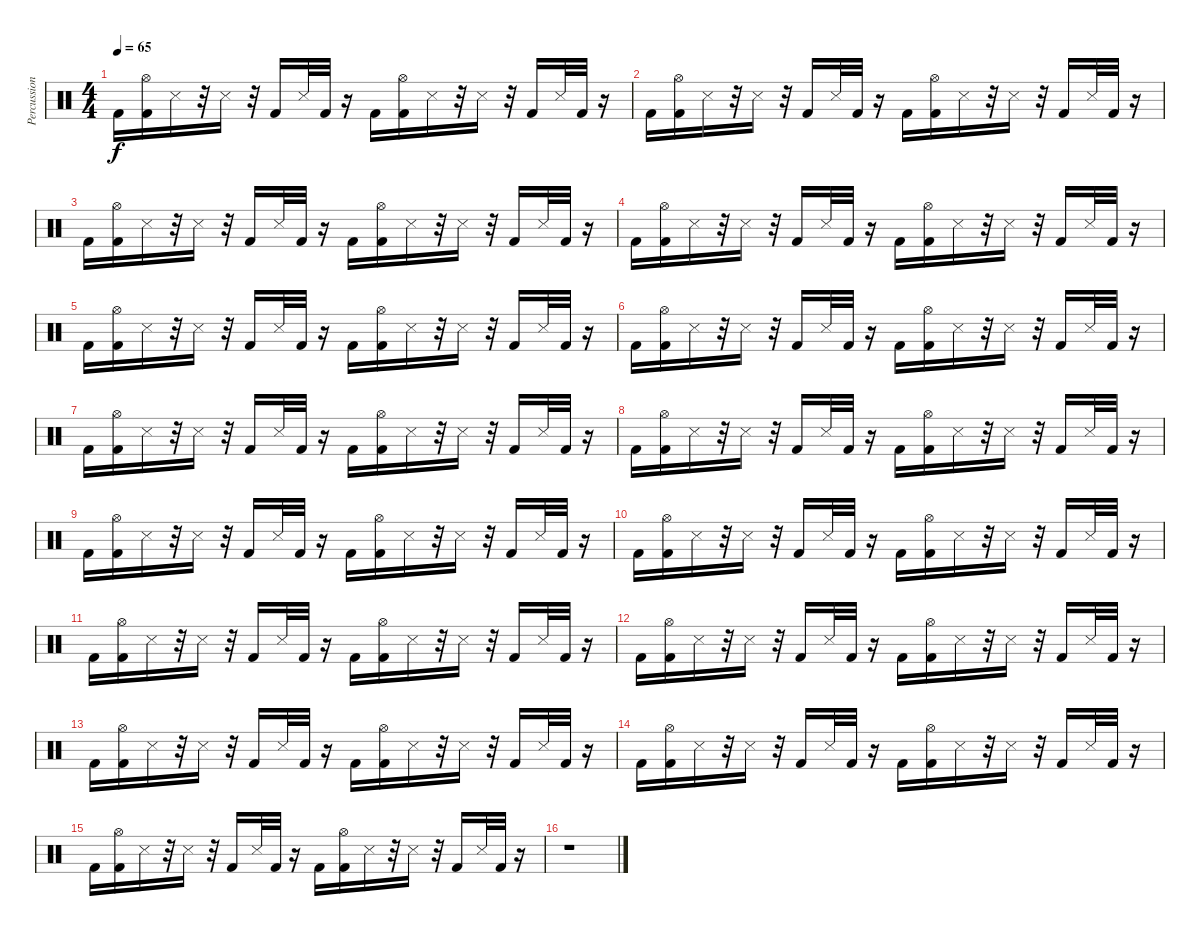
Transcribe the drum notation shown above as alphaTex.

\track ("Percussion 1" "Percussion") {instrument percussion}
\staff {score}
\articulation defaults
\ts (4 4)
\tempo 65
\clef neutral
\ks c "Kick (hit) 2".16{dy f}
("Hi-Hat (open)" "Kick (hit) 2").16 "Snare (side stick) 3".16 r.32 "Snare (side stick) 3".16 r.32 "Kick (hit) 2".16 "Snare (side stick) 3".32 "Kick (hit) 2".32 r.16 "Kick (hit) 2".16 ("Hi-Hat (open)" "Kick (hit) 2").16 "Snare (side stick) 3".16 r.32 "Snare (side stick) 3".16 r.32 "Kick (hit) 2".16 "Snare (side stick) 3".32 "Kick (hit) 2".32 r.16 |
"Kick (hit) 2".16 ("Hi-Hat (open)" "Kick (hit) 2").16 "Snare (side stick) 3".16 r.32 "Snare (side stick) 3".16 r.32 "Kick (hit) 2".16 "Snare (side stick) 3".32 "Kick (hit) 2".32 r.16 "Kick (hit) 2".16 ("Hi-Hat (open)" "Kick (hit) 2").16 "Snare (side stick) 3".16 r.32 "Snare (side stick) 3".16 r.32 "Kick (hit) 2".16 "Snare (side stick) 3".32 "Kick (hit) 2".32 r.16 |
"Kick (hit) 2".16 ("Hi-Hat (open)" "Kick (hit) 2").16 "Snare (side stick) 3".16 r.32 "Snare (side stick) 3".16 r.32 "Kick (hit) 2".16 "Snare (side stick) 3".32 "Kick (hit) 2".32 r.16 "Kick (hit) 2".16 ("Hi-Hat (open)" "Kick (hit) 2").16 "Snare (side stick) 3".16 r.32 "Snare (side stick) 3".16 r.32 "Kick (hit) 2".16 "Snare (side stick) 3".32 "Kick (hit) 2".32 r.16 |
"Kick (hit) 2".16 ("Hi-Hat (open)" "Kick (hit) 2").16 "Snare (side stick) 3".16 r.32 "Snare (side stick) 3".16 r.32 "Kick (hit) 2".16 "Snare (side stick) 3".32 "Kick (hit) 2".32 r.16 "Kick (hit) 2".16 ("Hi-Hat (open)" "Kick (hit) 2").16 "Snare (side stick) 3".16 r.32 "Snare (side stick) 3".16 r.32 "Kick (hit) 2".16 "Snare (side stick) 3".32 "Kick (hit) 2".32 r.16 |
"Kick (hit) 2".16 ("Hi-Hat (open)" "Kick (hit) 2").16 "Snare (side stick) 3".16 r.32 "Snare (side stick) 3".16 r.32 "Kick (hit) 2".16 "Snare (side stick) 3".32 "Kick (hit) 2".32 r.16 "Kick (hit) 2".16 ("Hi-Hat (open)" "Kick (hit) 2").16 "Snare (side stick) 3".16 r.32 "Snare (side stick) 3".16 r.32 "Kick (hit) 2".16 "Snare (side stick) 3".32 "Kick (hit) 2".32 r.16 |
"Kick (hit) 2".16 ("Hi-Hat (open)" "Kick (hit) 2").16 "Snare (side stick) 3".16 r.32 "Snare (side stick) 3".16 r.32 "Kick (hit) 2".16 "Snare (side stick) 3".32 "Kick (hit) 2".32 r.16 "Kick (hit) 2".16 ("Hi-Hat (open)" "Kick (hit) 2").16 "Snare (side stick) 3".16 r.32 "Snare (side stick) 3".16 r.32 "Kick (hit) 2".16 "Snare (side stick) 3".32 "Kick (hit) 2".32 r.16 |
"Kick (hit) 2".16 ("Hi-Hat (open)" "Kick (hit) 2").16 "Snare (side stick) 3".16 r.32 "Snare (side stick) 3".16 r.32 "Kick (hit) 2".16 "Snare (side stick) 3".32 "Kick (hit) 2".32 r.16 "Kick (hit) 2".16 ("Hi-Hat (open)" "Kick (hit) 2").16 "Snare (side stick) 3".16 r.32 "Snare (side stick) 3".16 r.32 "Kick (hit) 2".16 "Snare (side stick) 3".32 "Kick (hit) 2".32 r.16 |
"Kick (hit) 2".16 ("Hi-Hat (open)" "Kick (hit) 2").16 "Snare (side stick) 3".16 r.32 "Snare (side stick) 3".16 r.32 "Kick (hit) 2".16 "Snare (side stick) 3".32 "Kick (hit) 2".32 r.16 "Kick (hit) 2".16 ("Hi-Hat (open)" "Kick (hit) 2").16 "Snare (side stick) 3".16 r.32 "Snare (side stick) 3".16 r.32 "Kick (hit) 2".16 "Snare (side stick) 3".32 "Kick (hit) 2".32 r.16 |
"Kick (hit) 2".16 ("Hi-Hat (open)" "Kick (hit) 2").16 "Snare (side stick) 3".16 r.32 "Snare (side stick) 3".16 r.32 "Kick (hit) 2".16 "Snare (side stick) 3".32 "Kick (hit) 2".32 r.16 "Kick (hit) 2".16 ("Hi-Hat (open)" "Kick (hit) 2").16 "Snare (side stick) 3".16 r.32 "Snare (side stick) 3".16 r.32 "Kick (hit) 2".16 "Snare (side stick) 3".32 "Kick (hit) 2".32 r.16 |
"Kick (hit) 2".16 ("Hi-Hat (open)" "Kick (hit) 2").16 "Snare (side stick) 3".16 r.32 "Snare (side stick) 3".16 r.32 "Kick (hit) 2".16 "Snare (side stick) 3".32 "Kick (hit) 2".32 r.16 "Kick (hit) 2".16 ("Hi-Hat (open)" "Kick (hit) 2").16 "Snare (side stick) 3".16 r.32 "Snare (side stick) 3".16 r.32 "Kick (hit) 2".16 "Snare (side stick) 3".32 "Kick (hit) 2".32 r.16 |
"Kick (hit) 2".16 ("Hi-Hat (open)" "Kick (hit) 2").16 "Snare (side stick) 3".16 r.32 "Snare (side stick) 3".16 r.32 "Kick (hit) 2".16 "Snare (side stick) 3".32 "Kick (hit) 2".32 r.16 "Kick (hit) 2".16 ("Hi-Hat (open)" "Kick (hit) 2").16 "Snare (side stick) 3".16 r.32 "Snare (side stick) 3".16 r.32 "Kick (hit) 2".16 "Snare (side stick) 3".32 "Kick (hit) 2".32 r.16 |
"Kick (hit) 2".16 ("Hi-Hat (open)" "Kick (hit) 2").16 "Snare (side stick) 3".16 r.32 "Snare (side stick) 3".16 r.32 "Kick (hit) 2".16 "Snare (side stick) 3".32 "Kick (hit) 2".32 r.16 "Kick (hit) 2".16 ("Hi-Hat (open)" "Kick (hit) 2").16 "Snare (side stick) 3".16 r.32 "Snare (side stick) 3".16 r.32 "Kick (hit) 2".16 "Snare (side stick) 3".32 "Kick (hit) 2".32 r.16 |
\section ("" "")
"Kick (hit) 2".16 ("Hi-Hat (open)" "Kick (hit) 2").16 "Snare (side stick) 3".16 r.32 "Snare (side stick) 3".16 r.32 "Kick (hit) 2".16 "Snare (side stick) 3".32 "Kick (hit) 2".32 r.16 "Kick (hit) 2".16 ("Hi-Hat (open)" "Kick (hit) 2").16 "Snare (side stick) 3".16 r.32 "Snare (side stick) 3".16 r.32 "Kick (hit) 2".16 "Snare (side stick) 3".32 "Kick (hit) 2".32 r.16 |
"Kick (hit) 2".16 ("Hi-Hat (open)" "Kick (hit) 2").16 "Snare (side stick) 3".16 r.32 "Snare (side stick) 3".16 r.32 "Kick (hit) 2".16 "Snare (side stick) 3".32 "Kick (hit) 2".32 r.16 "Kick (hit) 2".16 ("Hi-Hat (open)" "Kick (hit) 2").16 "Snare (side stick) 3".16 r.32 "Snare (side stick) 3".16 r.32 "Kick (hit) 2".16 "Snare (side stick) 3".32 "Kick (hit) 2".32 r.16 |
"Kick (hit) 2".16 ("Hi-Hat (open)" "Kick (hit) 2").16 "Snare (side stick) 3".16 r.32 "Snare (side stick) 3".16 r.32 "Kick (hit) 2".16 "Snare (side stick) 3".32 "Kick (hit) 2".32 r.16 "Kick (hit) 2".16 ("Hi-Hat (open)" "Kick (hit) 2").16 "Snare (side stick) 3".16 r.32 "Snare (side stick) 3".16 r.32 "Kick (hit) 2".16 "Snare (side stick) 3".32 "Kick (hit) 2".32 r.16 |
r.1
